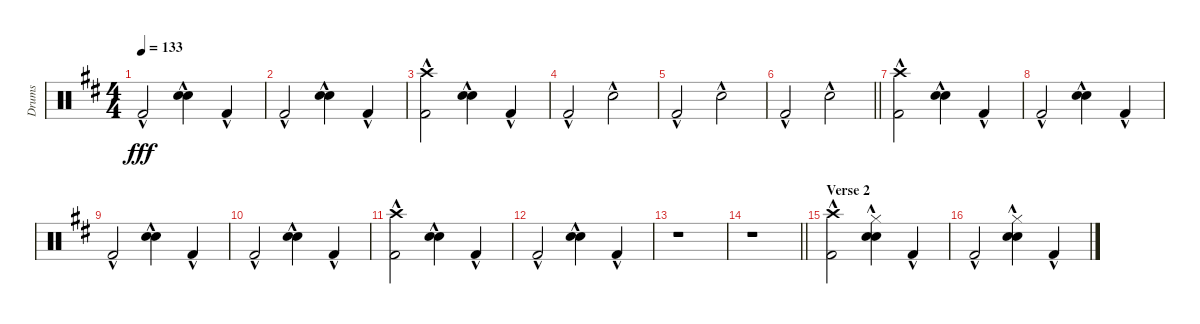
\track ("Drums" "Drums") {instrument percussion}
\staff {score}
\articulation defaults
\ts (4 4)
\tempo 133
\clef neutral
\ks bminor "Kick (hit) 2"{hac}.2{dy fff}
("Hand Clap (hit)"{hac} "Snare (hit) 2"{hac}).4 "Kick (hit) 2"{hac}.4 |
"Kick (hit) 2"{hac}.2 ("Hand Clap (hit)"{hac} "Snare (hit) 2"{hac}).4 "Kick (hit) 2"{hac}.4 |
("Crash high (hit)"{hac} "Kick (hit) 2"{hac}).2 ("Hand Clap (hit)"{hac} "Snare (hit) 2"{hac}).4 "Kick (hit) 2"{hac}.4 |
"Kick (hit) 2"{hac}.2 "Snare (hit) 2"{hac}.2 |
"Kick (hit) 2"{hac}.2 "Snare (hit) 2"{hac}.2 |
\barLineRight lightlight "Kick (hit) 2"{hac}.2 "Snare (hit) 2"{hac}.2
|
("Crash high (hit)"{hac} "Kick (hit) 2"{hac}).2 ("Hand Clap (hit)"{hac} "Snare (hit) 2"{hac}).4 "Kick (hit) 2"{hac}.4 |
"Kick (hit) 2"{hac}.2 ("Hand Clap (hit)"{hac} "Snare (hit) 2"{hac}).4 "Kick (hit) 2"{hac}.4 |
"Kick (hit) 2"{hac}.2 ("Hand Clap (hit)"{hac} "Snare (hit) 2"{hac}).4 "Kick (hit) 2"{hac}.4 |
"Kick (hit) 2"{hac}.2 ("Hand Clap (hit)"{hac} "Snare (hit) 2"{hac}).4 "Kick (hit) 2"{hac}.4 |
("Crash high (hit)"{hac} "Kick (hit) 2"{hac}).2 ("Hand Clap (hit)"{hac} "Snare (hit) 2"{hac}).4 "Kick (hit) 2"{hac}.4 |
"Kick (hit) 2"{hac}.2 ("Hand Clap (hit)"{hac} "Snare (hit) 2"{hac}).4 "Kick (hit) 2"{hac}.4 |
r.1 |
\barLineRight lightlight
r.1 |
\section ("" "Verse 2")
("Crash high (hit)"{hac} "Kick (hit) 2"{hac}).2 ("Hi-Hat (closed)"{hac} "Hand Clap (hit)"{hac} "Snare (hit) 2"{hac}).4 "Kick (hit) 2"{hac}.4 |
"Kick (hit) 2"{hac}.2 ("Hi-Hat (closed)"{hac} "Hand Clap (hit)"{hac} "Snare (hit) 2"{hac}).4 "Kick (hit) 2"{hac}.4
